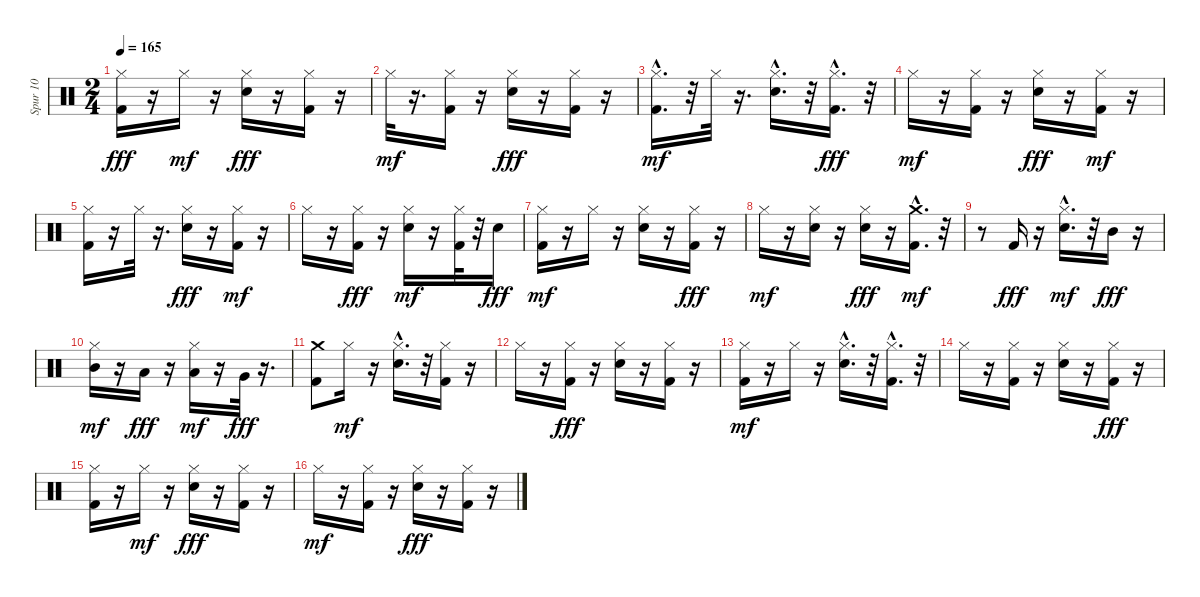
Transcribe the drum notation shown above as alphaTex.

\track ("Spur 10" "Spur 10") {instrument percussion}
\staff {score}
\articulation defaults
\ts (2 4)
\tempo 165
\clef neutral
\ks c
("Hi-Hat (closed)" "Kick (hit) 2").16{dy fff} r.16 "Hi-Hat (closed)".16{dy mf} r.16 ("Hi-Hat (closed)" "Electric Snare (hit)").16{dy fff} r.16 ("Hi-Hat (closed)" "Kick (hit) 2").16 r.16 |
"Hi-Hat (closed)".32{dy mf} r.16{d} ("Kick (hit) 2" "Hi-Hat (closed)").16 r.16 ("Hi-Hat (closed)" "Electric Snare (hit)").16{dy fff} r.16 ("Hi-Hat (closed)" "Kick (hit) 2").16 r.16 |
("Kick (hit) 2"{hac} "Hi-Hat (closed)").16{d dy mf} r.32 "Hi-Hat (closed)".32 r.16{d} ("Electric Snare (hit)"{hac} "Hi-Hat (closed)").16{d} r.32 ("Hi-Hat (closed)" "Kick (hit) 2"{hac}).16{d dy fff} r.32 |
"Hi-Hat (closed)".16{dy mf} r.16 ("Kick (hit) 2" "Hi-Hat (closed)").16 r.16 ("Hi-Hat (closed)" "Electric Snare (hit)").16{dy fff} r.16 ("Kick (hit) 2" "Hi-Hat (closed)").16{dy mf} r.16 |
("Kick (hit) 2" "Hi-Hat (closed)").16 r.16 "Hi-Hat (closed)".32 r.16{d} ("Hi-Hat (closed)" "Electric Snare (hit)").16{dy fff} r.16 ("Kick (hit) 2" "Hi-Hat (closed)").16{dy mf} r.16 |
"Hi-Hat (closed)".16 r.16 ("Hi-Hat (closed)" "Kick (hit) 2").16{dy fff} r.16 ("Electric Snare (hit)" "Hi-Hat (closed)").16{dy mf} r.16 ("Kick (hit) 2" "Hi-Hat (closed)").32 r.32 "Electric Snare (hit)".16{dy fff} |
("Kick (hit) 2" "Hi-Hat (closed)").16{dy mf} r.16 "Hi-Hat (closed)".16 r.16 ("Electric Snare (hit)" "Hi-Hat (closed)").16 r.16 ("Hi-Hat (closed)" "Kick (hit) 2").16{dy fff} r.16 |
"Hi-Hat (closed)".16{dy mf} r.16 ("Electric Snare (hit)" "Hi-Hat (closed)").16 r.16 ("Hi-Hat (closed)" "Electric Snare (hit)").16{dy fff} r.16 ("Kick (hit) 2"{hac} "Crash medium (hit)").16{d dy mf} r.32 |
r.8 "Kick (hit) 2".16{dy fff} r.16 ("Electric Snare (hit)"{hac} "Hi-Hat (closed)").16{d dy mf} r.32 "Mid Tom (hit)".16{dy fff} r.16 |
("Mid Tom (hit)" "Hi-Hat (closed)").16{dy mf} r.16 "Low Tom (hit)".16{dy fff} r.16 ("Low Tom (hit)" "Hi-Hat (closed)").16{dy mf} r.16 "Very Low Tom (hit)".32{dy fff} r.16{d} |
("Crash medium (hit)" "Kick (hit) 2").8 "Hi-Hat (closed)".16{dy mf} r.16 ("Electric Snare (hit)"{hac} "Hi-Hat (closed)").16{d} r.32 ("Kick (hit) 2" "Hi-Hat (closed)").16 r.16 |
"Hi-Hat (closed)".16 r.16 ("Hi-Hat (closed)" "Kick (hit) 2").16{dy fff} r.16 ("Hi-Hat (closed)" "Electric Snare (hit)").16 r.16 ("Hi-Hat (closed)" "Kick (hit) 2").16 r.16 |
("Kick (hit) 2" "Hi-Hat (closed)").16{dy mf} r.16 "Hi-Hat (closed)".16 r.16 ("Electric Snare (hit)"{hac} "Hi-Hat (closed)").16{d} r.32 ("Kick (hit) 2"{hac} "Hi-Hat (closed)").16{d} r.32 |
"Hi-Hat (closed)".16 r.16 ("Kick (hit) 2" "Hi-Hat (closed)").16 r.16 ("Electric Snare (hit)" "Hi-Hat (closed)").16 r.16 ("Hi-Hat (closed)" "Kick (hit) 2").16{dy fff} r.16 |
("Hi-Hat (closed)" "Kick (hit) 2").16 r.16 "Hi-Hat (closed)".16{dy mf} r.16 ("Hi-Hat (closed)" "Electric Snare (hit)").16{dy fff} r.16 ("Hi-Hat (closed)" "Kick (hit) 2").16 r.16 |
"Hi-Hat (closed)".16{dy mf} r.16 ("Kick (hit) 2" "Hi-Hat (closed)").16 r.16 ("Hi-Hat (closed)" "Electric Snare (hit)").16{dy fff} r.16 ("Hi-Hat (closed)" "Kick (hit) 2").16 r.16
